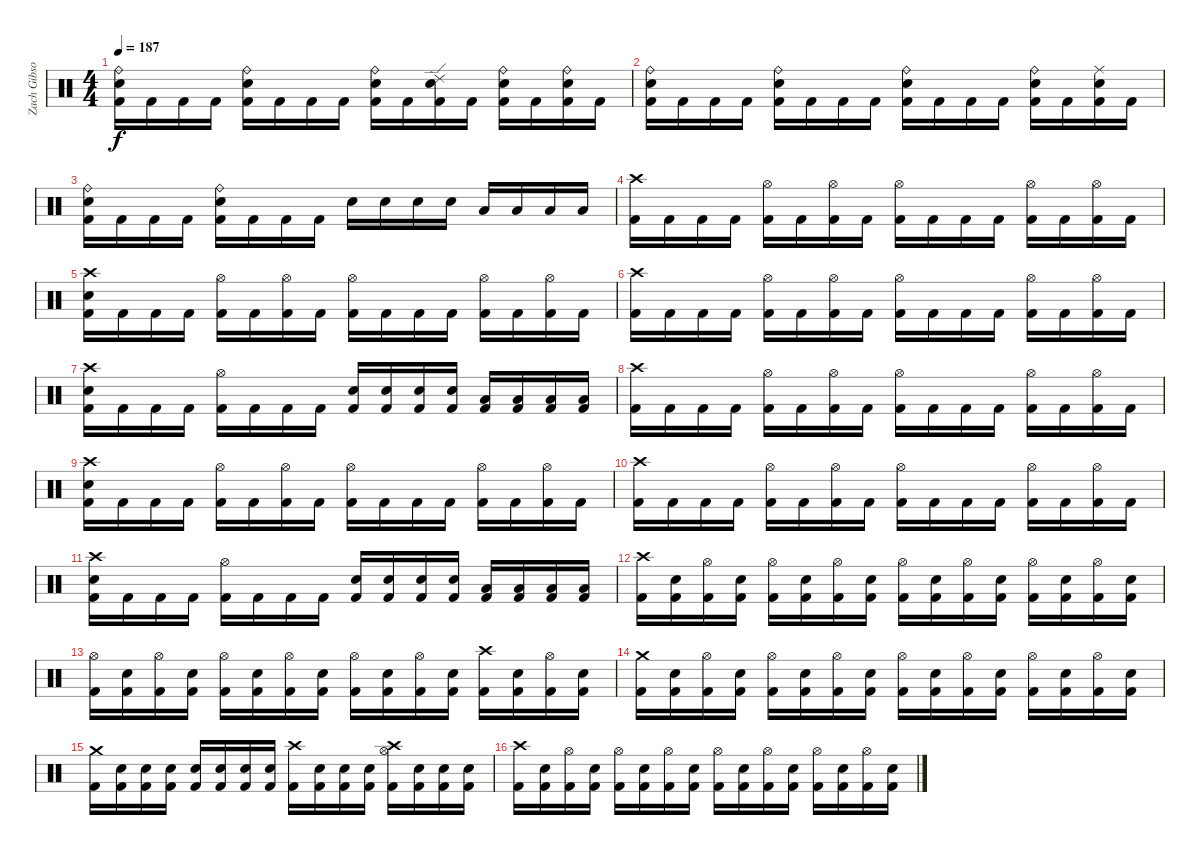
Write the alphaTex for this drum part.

\track ("Zach Gibson (Ex-Drums)" "Zach Gibso") {instrument percussion}
\staff {score}
\articulation defaults
\ts (4 4)
\tempo 187
\clef neutral
\ks c
("Ride (bell)" "Snare (hit) 2" "Kick (hit) 2").16{dy f} "Kick (hit) 2".16 "Kick (hit) 2".16 "Kick (hit) 2".16 ("Snare (hit) 2" "Ride (bell)" "Kick (hit) 2").16 "Kick (hit) 2".16 "Kick (hit) 2".16 "Kick (hit) 2".16 ("Snare (hit) 2" "Ride (bell)" "Kick (hit) 2").16 "Kick (hit) 2".16 ("Ride (edge) 2" "Snare (hit) 2" "Kick (hit) 2").16 "Kick (hit) 2".16 ("Ride (bell)" "Snare (hit) 2" "Kick (hit) 2").16 "Kick (hit) 2".16 ("Ride (bell)" "Snare (hit) 2" "Kick (hit) 2").16 "Kick (hit) 2".16 |
("Ride (bell)" "Snare (hit) 2" "Kick (hit) 2").16 "Kick (hit) 2".16 "Kick (hit) 2".16 "Kick (hit) 2".16 ("Snare (hit) 2" "Ride (bell)" "Kick (hit) 2").16 "Kick (hit) 2".16 "Kick (hit) 2".16 "Kick (hit) 2".16 ("Snare (hit) 2" "Ride (bell)" "Kick (hit) 2").16 "Kick (hit) 2".16 "Kick (hit) 2".16 "Kick (hit) 2".16 ("Ride (bell)" "Snare (hit) 2" "Kick (hit) 2").16 "Kick (hit) 2".16 ("Ride (middle)" "Snare (hit) 2" "Kick (hit) 2").16 "Kick (hit) 2".16 |
("Ride (bell)" "Snare (hit) 2" "Kick (hit) 2").16 "Kick (hit) 2".16 "Kick (hit) 2".16 "Kick (hit) 2".16 ("Snare (hit) 2" "Ride (bell)" "Kick (hit) 2").16 "Kick (hit) 2".16 "Kick (hit) 2".16 "Kick (hit) 2".16 "Snare (hit) 2".16 "Snare (hit) 2".16 "Snare (hit) 2".16 "Snare (hit) 2".16 "Low Tom (hit)".16 "Low Tom (hit)".16 "Low Floor Tom (hit)".16 "Low Floor Tom (hit)".16 |
("Crash high (hit)" "Kick (hit) 2").16 "Kick (hit) 2".16 "Kick (hit) 2".16 "Kick (hit) 2".16 ("Hi-Hat (open)" "Kick (hit) 2").16 "Kick (hit) 2".16 ("Hi-Hat (open)" "Kick (hit) 2").16 "Kick (hit) 2".16 ("Hi-Hat (open)" "Kick (hit) 2").16 "Kick (hit) 2".16 "Kick (hit) 2".16 "Kick (hit) 2".16 ("Hi-Hat (open)" "Kick (hit) 2").16 "Kick (hit) 2".16 ("Hi-Hat (open)" "Kick (hit) 2").16 "Kick (hit) 2".16 |
("Snare (hit) 2" "Crash high (hit)" "Kick (hit) 2").16 "Kick (hit) 2".16 "Kick (hit) 2".16 "Kick (hit) 2".16 ("Hi-Hat (open)" "Kick (hit) 2").16 "Kick (hit) 2".16 ("Hi-Hat (open)" "Kick (hit) 2").16 "Kick (hit) 2".16 ("Hi-Hat (open)" "Kick (hit) 2").16 "Kick (hit) 2".16 "Kick (hit) 2".16 "Kick (hit) 2".16 ("Hi-Hat (open)" "Kick (hit) 2").16 "Kick (hit) 2".16 ("Hi-Hat (open)" "Kick (hit) 2").16 "Kick (hit) 2".16 |
("Crash high (hit)" "Kick (hit) 2").16 "Kick (hit) 2".16 "Kick (hit) 2".16 "Kick (hit) 2".16 ("Hi-Hat (open)" "Kick (hit) 2").16 "Kick (hit) 2".16 ("Hi-Hat (open)" "Kick (hit) 2").16 "Kick (hit) 2".16 ("Hi-Hat (open)" "Kick (hit) 2").16 "Kick (hit) 2".16 "Kick (hit) 2".16 "Kick (hit) 2".16 ("Hi-Hat (open)" "Kick (hit) 2").16 "Kick (hit) 2".16 ("Hi-Hat (open)" "Kick (hit) 2").16 "Kick (hit) 2".16 |
("Snare (hit) 2" "Crash high (hit)" "Kick (hit) 2").16 "Kick (hit) 2".16 "Kick (hit) 2".16 "Kick (hit) 2".16 ("Hi-Hat (open)" "Kick (hit) 2").16 "Kick (hit) 2".16 "Kick (hit) 2".16 "Kick (hit) 2".16 ("Snare (hit) 2" "Kick (hit) 2").16 ("Snare (hit) 2" "Kick (hit) 2").16 ("Snare (hit) 2" "Kick (hit) 2").16 ("Snare (hit) 2" "Kick (hit) 2").16 ("Low Tom (hit)" "Kick (hit) 2").16 ("Low Tom (hit)" "Kick (hit) 2").16 ("Low Tom (hit)" "Kick (hit) 2").16 ("Low Tom (hit)" "Kick (hit) 2").16 |
("Crash high (hit)" "Kick (hit) 2").16 "Kick (hit) 2".16 "Kick (hit) 2".16 "Kick (hit) 2".16 ("Hi-Hat (open)" "Kick (hit) 2").16 "Kick (hit) 2".16 ("Hi-Hat (open)" "Kick (hit) 2").16 "Kick (hit) 2".16 ("Hi-Hat (open)" "Kick (hit) 2").16 "Kick (hit) 2".16 "Kick (hit) 2".16 "Kick (hit) 2".16 ("Hi-Hat (open)" "Kick (hit) 2").16 "Kick (hit) 2".16 ("Hi-Hat (open)" "Kick (hit) 2").16 "Kick (hit) 2".16 |
("Snare (hit) 2" "Crash high (hit)" "Kick (hit) 2").16 "Kick (hit) 2".16 "Kick (hit) 2".16 "Kick (hit) 2".16 ("Hi-Hat (open)" "Kick (hit) 2").16 "Kick (hit) 2".16 ("Hi-Hat (open)" "Kick (hit) 2").16 "Kick (hit) 2".16 ("Hi-Hat (open)" "Kick (hit) 2").16 "Kick (hit) 2".16 "Kick (hit) 2".16 "Kick (hit) 2".16 ("Hi-Hat (open)" "Kick (hit) 2").16 "Kick (hit) 2".16 ("Hi-Hat (open)" "Kick (hit) 2").16 "Kick (hit) 2".16 |
("Crash high (hit)" "Kick (hit) 2").16 "Kick (hit) 2".16 "Kick (hit) 2".16 "Kick (hit) 2".16 ("Hi-Hat (open)" "Kick (hit) 2").16 "Kick (hit) 2".16 ("Hi-Hat (open)" "Kick (hit) 2").16 "Kick (hit) 2".16 ("Hi-Hat (open)" "Kick (hit) 2").16 "Kick (hit) 2".16 "Kick (hit) 2".16 "Kick (hit) 2".16 ("Hi-Hat (open)" "Kick (hit) 2").16 "Kick (hit) 2".16 ("Hi-Hat (open)" "Kick (hit) 2").16 "Kick (hit) 2".16 |
("Snare (hit) 2" "Crash high (hit)" "Kick (hit) 2").16 "Kick (hit) 2".16 "Kick (hit) 2".16 "Kick (hit) 2".16 ("Hi-Hat (open)" "Kick (hit) 2").16 "Kick (hit) 2".16 "Kick (hit) 2".16 "Kick (hit) 2".16 ("Snare (hit) 2" "Kick (hit) 2").16 ("Snare (hit) 2" "Kick (hit) 2").16 ("Snare (hit) 2" "Kick (hit) 2").16 ("Snare (hit) 2" "Kick (hit) 2").16 ("Low Tom (hit)" "Kick (hit) 2").16 ("Low Tom (hit)" "Kick (hit) 2").16 ("Low Tom (hit)" "Kick (hit) 2").16 ("Low Tom (hit)" "Kick (hit) 2").16 |
("Crash high (hit)" "Kick (hit) 2").16 ("Snare (hit) 2" "Kick (hit) 2").16 ("Hi-Hat (open)" "Kick (hit) 2").16 ("Snare (hit) 2" "Kick (hit) 2").16 ("Hi-Hat (open)" "Kick (hit) 2").16 ("Snare (hit) 2" "Kick (hit) 2").16 ("Hi-Hat (open)" "Kick (hit) 2").16 ("Snare (hit) 2" "Kick (hit) 2").16 ("Hi-Hat (open)" "Kick (hit) 2").16 ("Snare (hit) 2" "Kick (hit) 2").16 ("Hi-Hat (open)" "Kick (hit) 2").16 ("Snare (hit) 2" "Kick (hit) 2").16 ("Hi-Hat (open)" "Kick (hit) 2").16 ("Snare (hit) 2" "Kick (hit) 2").16 ("Hi-Hat (open)" "Kick (hit) 2").16 ("Snare (hit) 2" "Kick (hit) 2").16 |
("Hi-Hat (open)" "Kick (hit) 2").16 ("Snare (hit) 2" "Kick (hit) 2").16 ("Hi-Hat (open)" "Kick (hit) 2").16 ("Snare (hit) 2" "Kick (hit) 2").16 ("Hi-Hat (open)" "Kick (hit) 2").16 ("Snare (hit) 2" "Kick (hit) 2").16 ("Hi-Hat (open)" "Kick (hit) 2").16 ("Snare (hit) 2" "Kick (hit) 2").16 ("Hi-Hat (open)" "Kick (hit) 2").16 ("Snare (hit) 2" "Kick (hit) 2").16 ("Hi-Hat (open)" "Kick (hit) 2").16 ("Snare (hit) 2" "Kick (hit) 2").16 ("Crash high (hit)" "Kick (hit) 2").16 ("Snare (hit) 2" "Kick (hit) 2").16 ("Hi-Hat (open)" "Kick (hit) 2").16 ("Snare (hit) 2" "Kick (hit) 2").16 |
("Crash medium (hit)" "Kick (hit) 2").16 ("Snare (hit) 2" "Kick (hit) 2").16 ("Hi-Hat (open)" "Kick (hit) 2").16 ("Snare (hit) 2" "Kick (hit) 2").16 ("Hi-Hat (open)" "Kick (hit) 2").16 ("Snare (hit) 2" "Kick (hit) 2").16 ("Hi-Hat (open)" "Kick (hit) 2").16 ("Snare (hit) 2" "Kick (hit) 2").16 ("Hi-Hat (open)" "Kick (hit) 2").16 ("Snare (hit) 2" "Kick (hit) 2").16 ("Hi-Hat (open)" "Kick (hit) 2").16 ("Snare (hit) 2" "Kick (hit) 2").16 ("Hi-Hat (open)" "Kick (hit) 2").16 ("Snare (hit) 2" "Kick (hit) 2").16 ("Hi-Hat (open)" "Kick (hit) 2").16 ("Snare (hit) 2" "Kick (hit) 2").16 |
("Crash medium (hit)" "Kick (hit) 2").16 ("Snare (hit) 2" "Kick (hit) 2").16 ("Snare (hit) 2" "Kick (hit) 2").16 ("Snare (hit) 2" "Kick (hit) 2").16 ("Snare (hit) 2" "Kick (hit) 2").16 ("Snare (hit) 2" "Kick (hit) 2").16 ("Snare (hit) 2" "Kick (hit) 2").16 ("Snare (hit) 2" "Kick (hit) 2").16 ("Crash high (hit)" "Kick (hit) 2").16 ("Snare (hit) 2" "Kick (hit) 2").16 ("Snare (hit) 2" "Kick (hit) 2").16 ("Snare (hit) 2" "Kick (hit) 2").16 ("Crash high (hit)" "Hi-Hat (open)" "Kick (hit) 2").16 ("Snare (hit) 2" "Kick (hit) 2").16 ("Snare (hit) 2" "Kick (hit) 2").16 ("Snare (hit) 2" "Kick (hit) 2").16 |
("Crash high (hit)" "Kick (hit) 2").16 ("Snare (hit) 2" "Kick (hit) 2").16 ("Hi-Hat (open)" "Kick (hit) 2").16 ("Snare (hit) 2" "Kick (hit) 2").16 ("Hi-Hat (open)" "Kick (hit) 2").16 ("Snare (hit) 2" "Kick (hit) 2").16 ("Hi-Hat (open)" "Kick (hit) 2").16 ("Snare (hit) 2" "Kick (hit) 2").16 ("Hi-Hat (open)" "Kick (hit) 2").16 ("Snare (hit) 2" "Kick (hit) 2").16 ("Hi-Hat (open)" "Kick (hit) 2").16 ("Snare (hit) 2" "Kick (hit) 2").16 ("Hi-Hat (open)" "Kick (hit) 2").16 ("Snare (hit) 2" "Kick (hit) 2").16 ("Hi-Hat (open)" "Kick (hit) 2").16 ("Snare (hit) 2" "Kick (hit) 2").16
